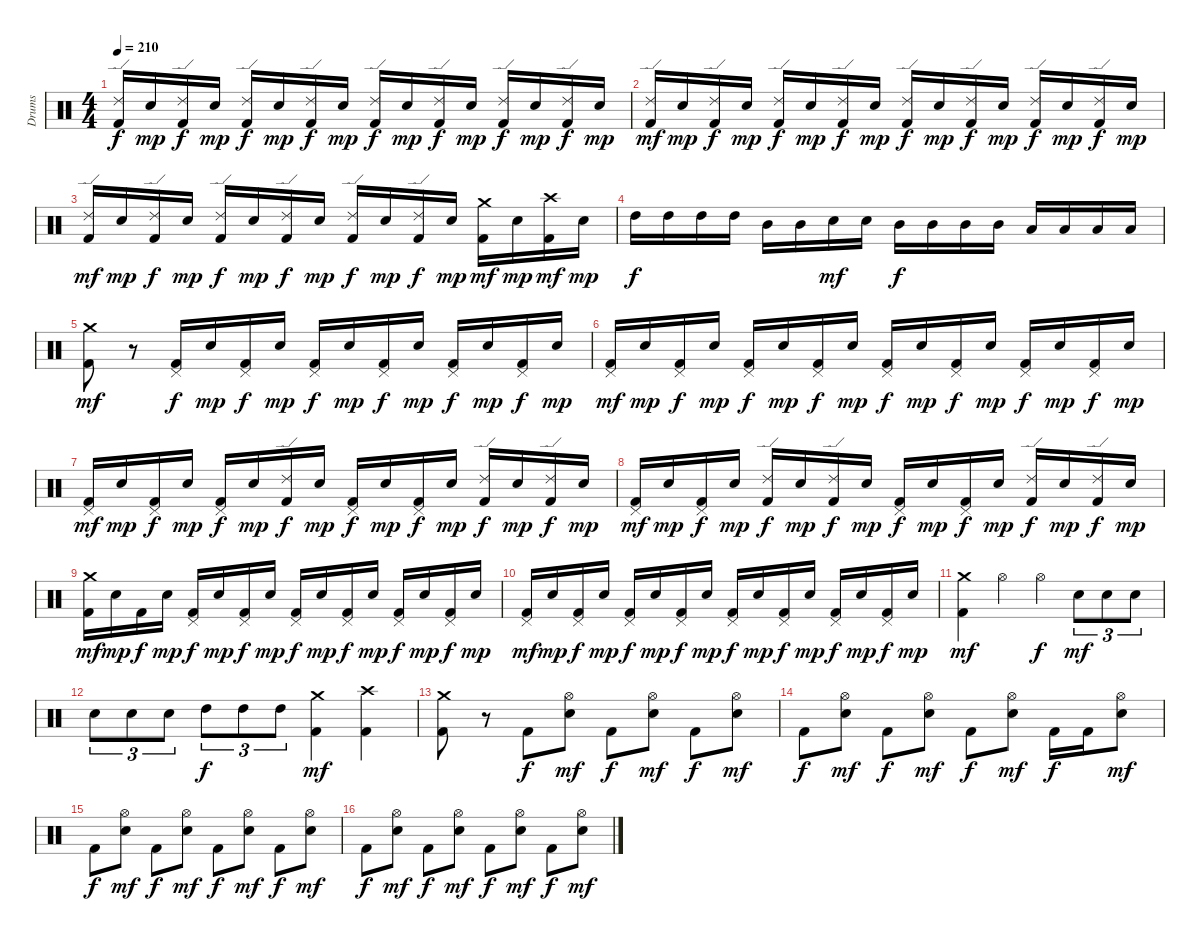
\track ("Drums" "Drums") {instrument percussion}
\staff {score}
\articulation defaults
\ts (4 4)
\tempo 210
\clef neutral
\ks c
("Ride (edge) 2" "Kick (hit) 2").16{dy f} "Electric Snare (hit)".16{dy mp} ("Ride (edge) 2" "Kick (hit) 2").16{dy f} "Electric Snare (hit)".16{dy mp} ("Ride (edge) 2" "Kick (hit) 2").16{dy f} "Electric Snare (hit)".16{dy mp} ("Ride (edge) 2" "Kick (hit) 2").16{dy f} "Electric Snare (hit)".16{dy mp} ("Ride (edge) 2" "Kick (hit) 2").16{dy f} "Electric Snare (hit)".16{dy mp} ("Ride (edge) 2" "Kick (hit) 2").16{dy f} "Electric Snare (hit)".16{dy mp} ("Ride (edge) 2" "Kick (hit) 2").16{dy f} "Electric Snare (hit)".16{dy mp} ("Ride (edge) 2" "Kick (hit) 2").16{dy f} "Electric Snare (hit)".16{dy mp} |
("Ride (edge) 2" "Kick (hit) 2").16{dy mf} "Electric Snare (hit)".16{dy mp} ("Ride (edge) 2" "Kick (hit) 2").16{dy f} "Electric Snare (hit)".16{dy mp} ("Ride (edge) 2" "Kick (hit) 2").16{dy f} "Electric Snare (hit)".16{dy mp} ("Ride (edge) 2" "Kick (hit) 2").16{dy f} "Electric Snare (hit)".16{dy mp} ("Ride (edge) 2" "Kick (hit) 2").16{dy f} "Electric Snare (hit)".16{dy mp} ("Ride (edge) 2" "Kick (hit) 2").16{dy f} "Electric Snare (hit)".16{dy mp} ("Ride (edge) 2" "Kick (hit) 2").16{dy f} "Electric Snare (hit)".16{dy mp} ("Ride (edge) 2" "Kick (hit) 2").16{dy f} "Electric Snare (hit)".16{dy mp} |
("Ride (edge) 2" "Kick (hit) 2").16{dy mf} "Electric Snare (hit)".16{dy mp} ("Ride (edge) 2" "Kick (hit) 2").16{dy f} "Electric Snare (hit)".16{dy mp} ("Ride (edge) 2" "Kick (hit) 2").16{dy f} "Electric Snare (hit)".16{dy mp} ("Ride (edge) 2" "Kick (hit) 2").16{dy f} "Electric Snare (hit)".16{dy mp} ("Ride (edge) 2" "Kick (hit) 2").16{dy f} "Electric Snare (hit)".16{dy mp} ("Ride (edge) 2" "Kick (hit) 2").16{dy f} "Electric Snare (hit)".16{dy mp} ("Crash medium (hit)" "Kick (hit) 2").16{dy mf} "Electric Snare (hit)".16{dy mp} ("Crash high (hit)" "Kick (hit) 2").16{dy mf} "Electric Snare (hit)".16{dy mp} |
"High Tom (hit)".16{dy f} "High Tom (hit)".16 "High Tom (hit)".16 "High Tom (hit)".16 "Mid Tom (hit)".16 "Mid Tom (hit)".16 "Electric Snare (hit)".16{dy mf} "Electric Snare (hit)".16 "Mid Tom (hit)".16{dy f} "Mid Tom (hit)".16 "Mid Tom (hit)".16 "Mid Tom (hit)".16 "Low Tom (hit)".16 "Low Tom (hit)".16 "Low Tom (hit)".16 "Low Tom (hit)".16 |
("Crash medium (hit)" "Kick (hit) 2").8{dy mf} r.8 ("Pedal Hi-Hat (hit)" "Kick (hit) 2").16{dy f} "Electric Snare (hit)".16{dy mp} ("Pedal Hi-Hat (hit)" "Kick (hit) 2").16{dy f} "Electric Snare (hit)".16{dy mp} ("Pedal Hi-Hat (hit)" "Kick (hit) 2").16{dy f} "Electric Snare (hit)".16{dy mp} ("Pedal Hi-Hat (hit)" "Kick (hit) 2").16{dy f} "Electric Snare (hit)".16{dy mp} ("Pedal Hi-Hat (hit)" "Kick (hit) 2").16{dy f} "Electric Snare (hit)".16{dy mp} ("Pedal Hi-Hat (hit)" "Kick (hit) 2").16{dy f} "Electric Snare (hit)".16{dy mp} |
("Pedal Hi-Hat (hit)" "Kick (hit) 2").16{dy mf} "Electric Snare (hit)".16{dy mp} ("Pedal Hi-Hat (hit)" "Kick (hit) 2").16{dy f} "Electric Snare (hit)".16{dy mp} ("Pedal Hi-Hat (hit)" "Kick (hit) 2").16{dy f} "Electric Snare (hit)".16{dy mp} ("Pedal Hi-Hat (hit)" "Kick (hit) 2").16{dy f} "Electric Snare (hit)".16{dy mp} ("Pedal Hi-Hat (hit)" "Kick (hit) 2").16{dy f} "Electric Snare (hit)".16{dy mp} ("Pedal Hi-Hat (hit)" "Kick (hit) 2").16{dy f} "Electric Snare (hit)".16{dy mp} ("Pedal Hi-Hat (hit)" "Kick (hit) 2").16{dy f} "Electric Snare (hit)".16{dy mp} ("Pedal Hi-Hat (hit)" "Kick (hit) 2").16{dy f} "Electric Snare (hit)".16{dy mp} |
("Pedal Hi-Hat (hit)" "Kick (hit) 2").16{dy mf} "Electric Snare (hit)".16{dy mp} ("Pedal Hi-Hat (hit)" "Kick (hit) 2").16{dy f} "Electric Snare (hit)".16{dy mp} ("Pedal Hi-Hat (hit)" "Kick (hit) 2").16{dy f} "Electric Snare (hit)".16{dy mp} ("Ride (edge) 2" "Kick (hit) 2").16{dy f} "Electric Snare (hit)".16{dy mp} ("Pedal Hi-Hat (hit)" "Kick (hit) 2").16{dy f} "Electric Snare (hit)".16{dy mp} ("Pedal Hi-Hat (hit)" "Kick (hit) 2").16{dy f} "Electric Snare (hit)".16{dy mp} ("Ride (edge) 2" "Kick (hit) 2").16{dy f} "Electric Snare (hit)".16{dy mp} ("Ride (edge) 2" "Kick (hit) 2").16{dy f} "Electric Snare (hit)".16{dy mp} |
("Pedal Hi-Hat (hit)" "Kick (hit) 2").16{dy mf} "Electric Snare (hit)".16{dy mp} ("Pedal Hi-Hat (hit)" "Kick (hit) 2").16{dy f} "Electric Snare (hit)".16{dy mp} ("Ride (edge) 2" "Kick (hit) 2").16{dy f} "Electric Snare (hit)".16{dy mp} ("Ride (edge) 2" "Kick (hit) 2").16{dy f} "Electric Snare (hit)".16{dy mp} ("Pedal Hi-Hat (hit)" "Kick (hit) 2").16{dy f} "Electric Snare (hit)".16{dy mp} ("Pedal Hi-Hat (hit)" "Kick (hit) 2").16{dy f} "Electric Snare (hit)".16{dy mp} ("Ride (edge) 2" "Kick (hit) 2").16{dy f} "Electric Snare (hit)".16{dy mp} ("Ride (edge) 2" "Kick (hit) 2").16{dy f} "Electric Snare (hit)".16{dy mp} |
("Crash medium (hit)" "Kick (hit) 2").16{dy mf} "Electric Snare (hit)".16{dy mp} "Kick (hit) 2".16{dy f} "Electric Snare (hit)".16{dy mp} ("Pedal Hi-Hat (hit)" "Kick (hit) 2").16{dy f} "Electric Snare (hit)".16{dy mp} ("Pedal Hi-Hat (hit)" "Kick (hit) 2").16{dy f} "Electric Snare (hit)".16{dy mp} ("Pedal Hi-Hat (hit)" "Kick (hit) 2").16{dy f} "Electric Snare (hit)".16{dy mp} ("Pedal Hi-Hat (hit)" "Kick (hit) 2").16{dy f} "Electric Snare (hit)".16{dy mp} ("Pedal Hi-Hat (hit)" "Kick (hit) 2").16{dy f} "Electric Snare (hit)".16{dy mp} ("Pedal Hi-Hat (hit)" "Kick (hit) 2").16{dy f} "Electric Snare (hit)".16{dy mp} |
("Pedal Hi-Hat (hit)" "Kick (hit) 2").16{dy mf} "Electric Snare (hit)".16{dy mp} ("Pedal Hi-Hat (hit)" "Kick (hit) 2").16{dy f} "Electric Snare (hit)".16{dy mp} ("Pedal Hi-Hat (hit)" "Kick (hit) 2").16{dy f} "Electric Snare (hit)".16{dy mp} ("Pedal Hi-Hat (hit)" "Kick (hit) 2").16{dy f} "Electric Snare (hit)".16{dy mp} ("Pedal Hi-Hat (hit)" "Kick (hit) 2").16{dy f} "Electric Snare (hit)".16{dy mp} ("Pedal Hi-Hat (hit)" "Kick (hit) 2").16{dy f} "Electric Snare (hit)".16{dy mp} ("Pedal Hi-Hat (hit)" "Kick (hit) 2").16{dy f} "Electric Snare (hit)".16{dy mp} ("Pedal Hi-Hat (hit)" "Kick (hit) 2").16{dy f} "Electric Snare (hit)".16{dy mp} |
("Crash medium (hit)" "Kick (hit) 2").4{dy mf} "Hi-Hat (open)".4 "Hi-Hat (open)".4{dy f} "Electric Snare (hit)".8{tu (3 2) dy mf} "Electric Snare (hit)".8{tu (3 2)} "Electric Snare (hit)".8{tu (3 2)} |
"Electric Snare (hit)".8{tu (3 2)} "Electric Snare (hit)".8{tu (3 2)} "Electric Snare (hit)".8{tu (3 2)} "High Tom (hit)".8{tu (3 2) dy f} "High Tom (hit)".8{tu (3 2)} "High Tom (hit)".8{tu (3 2)} ("Crash medium (hit)" "Kick (hit) 2").4{dy mf} ("Crash high (hit)" "Kick (hit) 2").4 |
("Crash medium (hit)" "Kick (hit) 2").8 r.8 "Kick (hit) 2".8{dy f} ("Hi-Hat (open)" "Electric Snare (hit)").8{dy mf} "Kick (hit) 2".8{dy f} ("Hi-Hat (open)" "Electric Snare (hit)").8{dy mf} "Kick (hit) 2".8{dy f} ("Hi-Hat (open)" "Electric Snare (hit)").8{dy mf} |
"Kick (hit) 2".8{dy f} ("Hi-Hat (open)" "Electric Snare (hit)").8{dy mf} "Kick (hit) 2".8{dy f} ("Hi-Hat (open)" "Electric Snare (hit)").8{dy mf} "Kick (hit) 2".8{dy f} ("Hi-Hat (open)" "Electric Snare (hit)").8{dy mf} "Kick (hit) 2".16{dy f} "Kick (hit) 2".16 ("Hi-Hat (open)" "Electric Snare (hit)").8{dy mf} |
"Kick (hit) 2".8{dy f} ("Hi-Hat (open)" "Electric Snare (hit)").8{dy mf} "Kick (hit) 2".8{dy f} ("Hi-Hat (open)" "Electric Snare (hit)").8{dy mf} "Kick (hit) 2".8{dy f} ("Hi-Hat (open)" "Electric Snare (hit)").8{dy mf} "Kick (hit) 2".8{dy f} ("Hi-Hat (open)" "Electric Snare (hit)").8{dy mf} |
"Kick (hit) 2".8{dy f} ("Hi-Hat (open)" "Electric Snare (hit)").8{dy mf} "Kick (hit) 2".8{dy f} ("Hi-Hat (open)" "Electric Snare (hit)").8{dy mf} "Kick (hit) 2".8{dy f} ("Hi-Hat (open)" "Electric Snare (hit)").8{dy mf} "Kick (hit) 2".8{dy f} ("Hi-Hat (open)" "Electric Snare (hit)").8{dy mf}
